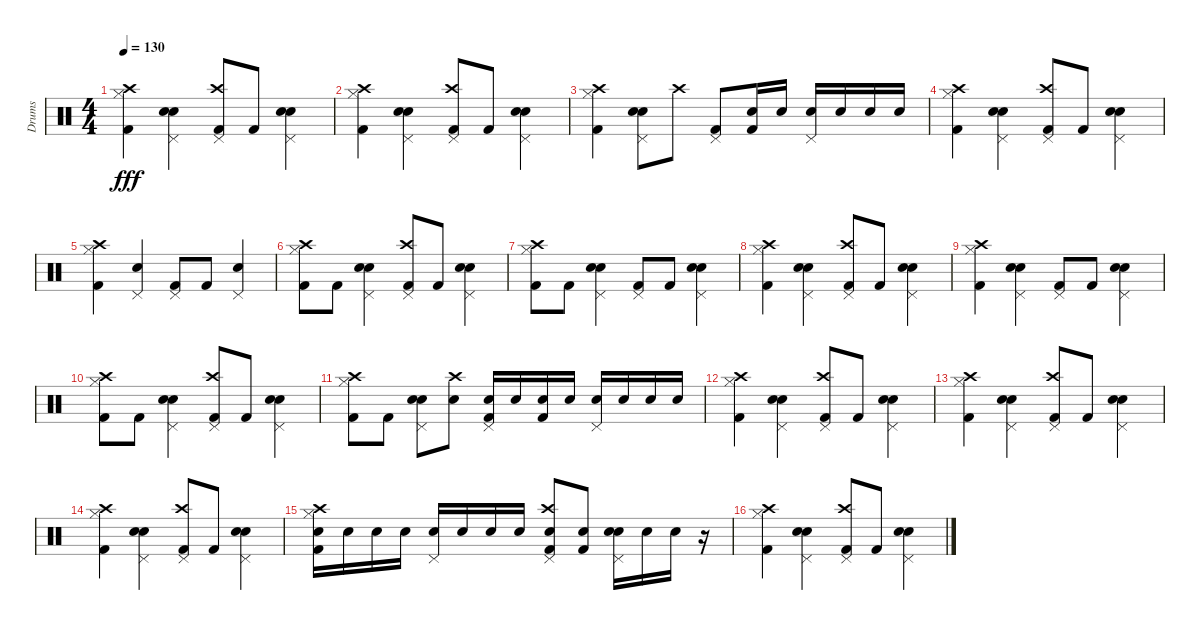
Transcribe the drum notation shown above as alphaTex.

\track ("Drums" "Drums") {instrument percussion}
\staff {score}
\articulation defaults
\ts (4 4)
\tempo 130
\clef neutral
\ks c
("Hi-Hat (closed)" "Kick (hit) 2" "Crash high (hit)").4{dy fff} ("Electric Snare (hit)" "Pedal Hi-Hat (hit)" "Snare (hit) 2").4 ("Pedal Hi-Hat (hit)" "Kick (hit) 2" "Crash high (hit)").8 "Kick (hit) 2".8 ("Electric Snare (hit)" "Pedal Hi-Hat (hit)" "Snare (hit) 2").4 |
("Hi-Hat (closed)" "Kick (hit) 2" "Crash high (hit)").4 ("Electric Snare (hit)" "Pedal Hi-Hat (hit)" "Snare (hit) 2").4 ("Pedal Hi-Hat (hit)" "Kick (hit) 2" "Crash high (hit)").8 "Kick (hit) 2".8 ("Electric Snare (hit)" "Pedal Hi-Hat (hit)" "Snare (hit) 2").4 |
("Hi-Hat (closed)" "Kick (hit) 2" "Crash high (hit)").4 ("Electric Snare (hit)" "Pedal Hi-Hat (hit)" "Snare (hit) 2").8 "Crash high (hit)".8 ("Pedal Hi-Hat (hit)" "Kick (hit) 2").8 ("Kick (hit) 2" "Snare (hit) 2").16 "Snare (hit) 2".16 ("Pedal Hi-Hat (hit)" "Electric Snare (hit)").16 "Electric Snare (hit)".16 "Electric Snare (hit)".16 "Electric Snare (hit)".16 |
("Hi-Hat (closed)" "Kick (hit) 2" "Crash high (hit)").4 ("Electric Snare (hit)" "Pedal Hi-Hat (hit)" "Snare (hit) 2").4 ("Pedal Hi-Hat (hit)" "Kick (hit) 2" "Crash high (hit)").8 "Kick (hit) 2".8 ("Electric Snare (hit)" "Pedal Hi-Hat (hit)" "Snare (hit) 2").4 |
("Hi-Hat (closed)" "Kick (hit) 2" "Crash high (hit)").4 ("Electric Snare (hit)" "Pedal Hi-Hat (hit)").4 ("Pedal Hi-Hat (hit)" "Kick (hit) 2").8 "Kick (hit) 2".8 ("Electric Snare (hit)" "Pedal Hi-Hat (hit)").4 |
("Hi-Hat (closed)" "Kick (hit) 2" "Crash high (hit)").8 "Kick (hit) 2".8 ("Electric Snare (hit)" "Pedal Hi-Hat (hit)" "Snare (hit) 2").4 ("Pedal Hi-Hat (hit)" "Kick (hit) 2" "Crash high (hit)").8 "Kick (hit) 2".8 ("Electric Snare (hit)" "Pedal Hi-Hat (hit)" "Snare (hit) 2").4 |
("Hi-Hat (closed)" "Kick (hit) 2" "Crash high (hit)").8 "Kick (hit) 2".8 ("Electric Snare (hit)" "Pedal Hi-Hat (hit)" "Snare (hit) 2").4 ("Pedal Hi-Hat (hit)" "Kick (hit) 2").8 "Kick (hit) 2".8 ("Electric Snare (hit)" "Pedal Hi-Hat (hit)" "Snare (hit) 2").4 |
("Hi-Hat (closed)" "Kick (hit) 2" "Crash high (hit)").4 ("Electric Snare (hit)" "Pedal Hi-Hat (hit)" "Snare (hit) 2").4 ("Pedal Hi-Hat (hit)" "Kick (hit) 2" "Crash high (hit)").8 "Kick (hit) 2".8 ("Electric Snare (hit)" "Pedal Hi-Hat (hit)" "Snare (hit) 2").4 |
("Hi-Hat (closed)" "Kick (hit) 2" "Crash high (hit)").4 ("Electric Snare (hit)" "Pedal Hi-Hat (hit)" "Snare (hit) 2").4 ("Pedal Hi-Hat (hit)" "Kick (hit) 2").8 "Kick (hit) 2".8 ("Electric Snare (hit)" "Pedal Hi-Hat (hit)" "Snare (hit) 2").4 |
("Hi-Hat (closed)" "Kick (hit) 2" "Crash high (hit)").8 "Kick (hit) 2".8 ("Electric Snare (hit)" "Pedal Hi-Hat (hit)" "Snare (hit) 2").4 ("Pedal Hi-Hat (hit)" "Kick (hit) 2" "Crash high (hit)").8 "Kick (hit) 2".8 ("Electric Snare (hit)" "Pedal Hi-Hat (hit)" "Snare (hit) 2").4 |
("Hi-Hat (closed)" "Kick (hit) 2" "Crash high (hit)").8 "Kick (hit) 2".8 ("Electric Snare (hit)" "Pedal Hi-Hat (hit)" "Snare (hit) 2").8 ("Crash high (hit)" "Snare (hit) 2").8 ("Pedal Hi-Hat (hit)" "Kick (hit) 2" "Snare (hit) 2").16 "Snare (hit) 2".16 ("Kick (hit) 2" "Snare (hit) 2").16 "Snare (hit) 2".16 ("Pedal Hi-Hat (hit)" "Electric Snare (hit)").16 "Electric Snare (hit)".16 "Snare (hit) 2".16 "Snare (hit) 2".16 |
("Hi-Hat (closed)" "Kick (hit) 2" "Crash high (hit)").4 ("Electric Snare (hit)" "Pedal Hi-Hat (hit)" "Snare (hit) 2").4 ("Pedal Hi-Hat (hit)" "Kick (hit) 2" "Crash high (hit)").8 "Kick (hit) 2".8 ("Electric Snare (hit)" "Pedal Hi-Hat (hit)" "Snare (hit) 2").4 |
("Hi-Hat (closed)" "Kick (hit) 2" "Crash high (hit)").4 ("Electric Snare (hit)" "Pedal Hi-Hat (hit)" "Snare (hit) 2").4 ("Pedal Hi-Hat (hit)" "Kick (hit) 2" "Crash high (hit)").8 "Kick (hit) 2".8 ("Electric Snare (hit)" "Pedal Hi-Hat (hit)" "Snare (hit) 2").4 |
("Hi-Hat (closed)" "Kick (hit) 2" "Crash high (hit)").4 ("Electric Snare (hit)" "Pedal Hi-Hat (hit)" "Snare (hit) 2").4 ("Pedal Hi-Hat (hit)" "Kick (hit) 2" "Crash high (hit)").8 "Kick (hit) 2".8 ("Electric Snare (hit)" "Pedal Hi-Hat (hit)" "Snare (hit) 2").4 |
("Hi-Hat (closed)" "Kick (hit) 2" "Crash high (hit)" "Electric Snare (hit)").16 "Electric Snare (hit)".16 "Electric Snare (hit)".16 "Electric Snare (hit)".16 ("Pedal Hi-Hat (hit)" "Snare (hit) 2").16 "Snare (hit) 2".16 "Snare (hit) 2".16 "Snare (hit) 2".16 ("Pedal Hi-Hat (hit)" "Kick (hit) 2" "Crash high (hit)" "Snare (hit) 2").8 ("Kick (hit) 2" "Snare (hit) 2").8 ("Electric Snare (hit)" "Pedal Hi-Hat (hit)" "Snare (hit) 2").16 "Snare (hit) 2".16 "Snare (hit) 2".16 r.16 |
("Hi-Hat (closed)" "Kick (hit) 2" "Crash high (hit)").4 ("Electric Snare (hit)" "Pedal Hi-Hat (hit)" "Snare (hit) 2").4 ("Pedal Hi-Hat (hit)" "Kick (hit) 2" "Crash high (hit)").8 "Kick (hit) 2".8 ("Electric Snare (hit)" "Pedal Hi-Hat (hit)" "Snare (hit) 2").4
